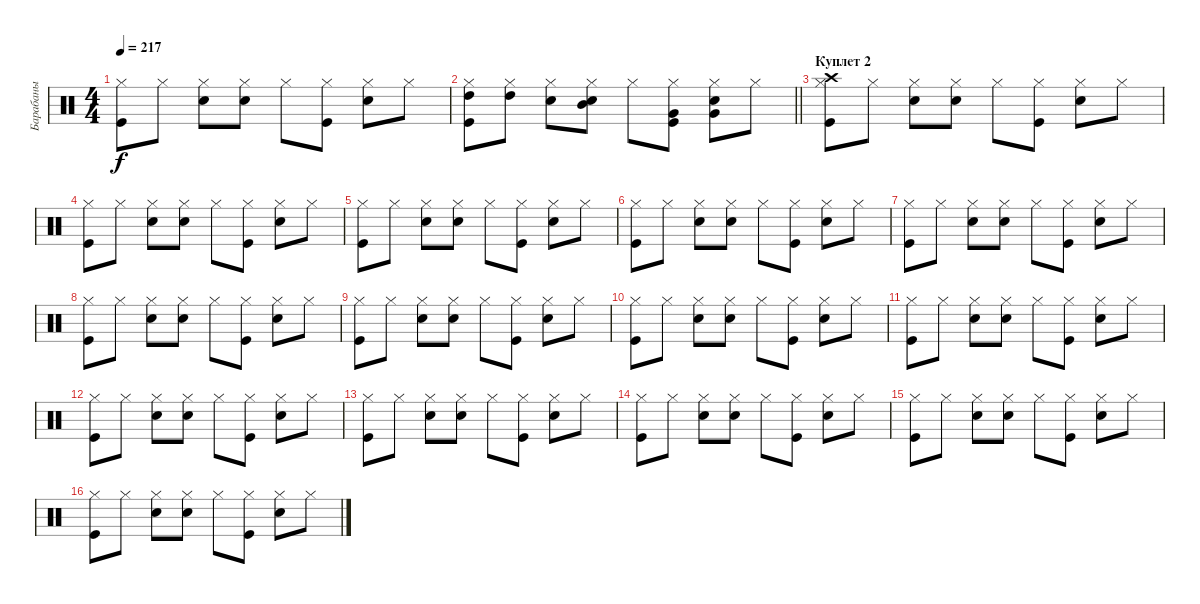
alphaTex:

\track ("Барабаны" "Барабаны") {instrument percussion}
\staff {score}
\articulation defaults
\ts (4 4)
\tempo 217
\clef neutral
\ks c
("Kick (hit)" "Hi-Hat (closed)").8{dy f} "Hi-Hat (closed)".8 ("Snare (hit) 2" "Hi-Hat (closed)").8 ("Snare (hit) 2" "Hi-Hat (closed)").8 "Hi-Hat (closed)".8 ("Kick (hit)" "Hi-Hat (closed)").8 ("Snare (hit) 2" "Hi-Hat (closed)").8 "Hi-Hat (closed)".8 |
\barLineRight lightlight
("Kick (hit)" "Hi-Hat (closed)" "High Tom (hit)").8 ("Hi-Hat (closed)" "High Tom (hit)").8 ("Snare (hit) 2" "Hi-Hat (closed)").8 ("Snare (hit) 2" "Hi-Hat (closed)" "Mid Tom (hit)").8 "Hi-Hat (closed)".8 ("Kick (hit)" "Hi-Hat (closed)" "Very Low Tom (hit)").8 ("Snare (hit) 2" "Hi-Hat (closed)" "Very Low Tom (hit)").8 "Hi-Hat (closed)".8 |
\section ("" "Куплет 2")
("Kick (hit)" "Hi-Hat (closed)" "Crash high (hit)").8 "Hi-Hat (closed)".8 ("Snare (hit) 2" "Hi-Hat (closed)").8 ("Snare (hit) 2" "Hi-Hat (closed)").8 "Hi-Hat (closed)".8 ("Kick (hit)" "Hi-Hat (closed)").8 ("Snare (hit) 2" "Hi-Hat (closed)").8 "Hi-Hat (closed)".8 |
("Kick (hit)" "Hi-Hat (closed)").8 "Hi-Hat (closed)".8 ("Snare (hit) 2" "Hi-Hat (closed)").8 ("Snare (hit) 2" "Hi-Hat (closed)").8 "Hi-Hat (closed)".8 ("Kick (hit)" "Hi-Hat (closed)").8 ("Snare (hit) 2" "Hi-Hat (closed)").8 "Hi-Hat (closed)".8 |
("Kick (hit)" "Hi-Hat (closed)").8 "Hi-Hat (closed)".8 ("Snare (hit) 2" "Hi-Hat (closed)").8 ("Snare (hit) 2" "Hi-Hat (closed)").8 "Hi-Hat (closed)".8 ("Kick (hit)" "Hi-Hat (closed)").8 ("Snare (hit) 2" "Hi-Hat (closed)").8 "Hi-Hat (closed)".8 |
("Kick (hit)" "Hi-Hat (closed)").8 "Hi-Hat (closed)".8 ("Snare (hit) 2" "Hi-Hat (closed)").8 ("Snare (hit) 2" "Hi-Hat (closed)").8 "Hi-Hat (closed)".8 ("Kick (hit)" "Hi-Hat (closed)").8 ("Snare (hit) 2" "Hi-Hat (closed)").8 "Hi-Hat (closed)".8 |
("Kick (hit)" "Hi-Hat (closed)").8 "Hi-Hat (closed)".8 ("Snare (hit) 2" "Hi-Hat (closed)").8 ("Snare (hit) 2" "Hi-Hat (closed)").8 "Hi-Hat (closed)".8 ("Kick (hit)" "Hi-Hat (closed)").8 ("Snare (hit) 2" "Hi-Hat (closed)").8 "Hi-Hat (closed)".8 |
("Kick (hit)" "Hi-Hat (closed)").8 "Hi-Hat (closed)".8 ("Snare (hit) 2" "Hi-Hat (closed)").8 ("Snare (hit) 2" "Hi-Hat (closed)").8 "Hi-Hat (closed)".8 ("Kick (hit)" "Hi-Hat (closed)").8 ("Snare (hit) 2" "Hi-Hat (closed)").8 "Hi-Hat (closed)".8 |
("Kick (hit)" "Hi-Hat (closed)").8 "Hi-Hat (closed)".8 ("Snare (hit) 2" "Hi-Hat (closed)").8 ("Snare (hit) 2" "Hi-Hat (closed)").8 "Hi-Hat (closed)".8 ("Kick (hit)" "Hi-Hat (closed)").8 ("Snare (hit) 2" "Hi-Hat (closed)").8 "Hi-Hat (closed)".8 |
("Kick (hit)" "Hi-Hat (closed)").8 "Hi-Hat (closed)".8 ("Snare (hit) 2" "Hi-Hat (closed)").8 ("Snare (hit) 2" "Hi-Hat (closed)").8 "Hi-Hat (closed)".8 ("Kick (hit)" "Hi-Hat (closed)").8 ("Snare (hit) 2" "Hi-Hat (closed)").8 "Hi-Hat (closed)".8 |
("Kick (hit)" "Hi-Hat (closed)").8 "Hi-Hat (closed)".8 ("Snare (hit) 2" "Hi-Hat (closed)").8 ("Snare (hit) 2" "Hi-Hat (closed)").8 "Hi-Hat (closed)".8 ("Kick (hit)" "Hi-Hat (closed)").8 ("Snare (hit) 2" "Hi-Hat (closed)").8 "Hi-Hat (closed)".8 |
("Kick (hit)" "Hi-Hat (closed)").8 "Hi-Hat (closed)".8 ("Snare (hit) 2" "Hi-Hat (closed)").8 ("Snare (hit) 2" "Hi-Hat (closed)").8 "Hi-Hat (closed)".8 ("Kick (hit)" "Hi-Hat (closed)").8 ("Snare (hit) 2" "Hi-Hat (closed)").8 "Hi-Hat (closed)".8 |
("Kick (hit)" "Hi-Hat (closed)").8 "Hi-Hat (closed)".8 ("Snare (hit) 2" "Hi-Hat (closed)").8 ("Snare (hit) 2" "Hi-Hat (closed)").8 "Hi-Hat (closed)".8 ("Kick (hit)" "Hi-Hat (closed)").8 ("Snare (hit) 2" "Hi-Hat (closed)").8 "Hi-Hat (closed)".8 |
("Kick (hit)" "Hi-Hat (closed)").8 "Hi-Hat (closed)".8 ("Snare (hit) 2" "Hi-Hat (closed)").8 ("Snare (hit) 2" "Hi-Hat (closed)").8 "Hi-Hat (closed)".8 ("Kick (hit)" "Hi-Hat (closed)").8 ("Snare (hit) 2" "Hi-Hat (closed)").8 "Hi-Hat (closed)".8 |
("Kick (hit)" "Hi-Hat (closed)").8 "Hi-Hat (closed)".8 ("Snare (hit) 2" "Hi-Hat (closed)").8 ("Snare (hit) 2" "Hi-Hat (closed)").8 "Hi-Hat (closed)".8 ("Kick (hit)" "Hi-Hat (closed)").8 ("Snare (hit) 2" "Hi-Hat (closed)").8 "Hi-Hat (closed)".8 |
("Kick (hit)" "Hi-Hat (closed)").8 "Hi-Hat (closed)".8 ("Snare (hit) 2" "Hi-Hat (closed)").8 ("Snare (hit) 2" "Hi-Hat (closed)").8 "Hi-Hat (closed)".8 ("Kick (hit)" "Hi-Hat (closed)").8 ("Snare (hit) 2" "Hi-Hat (closed)").8 "Hi-Hat (closed)".8
